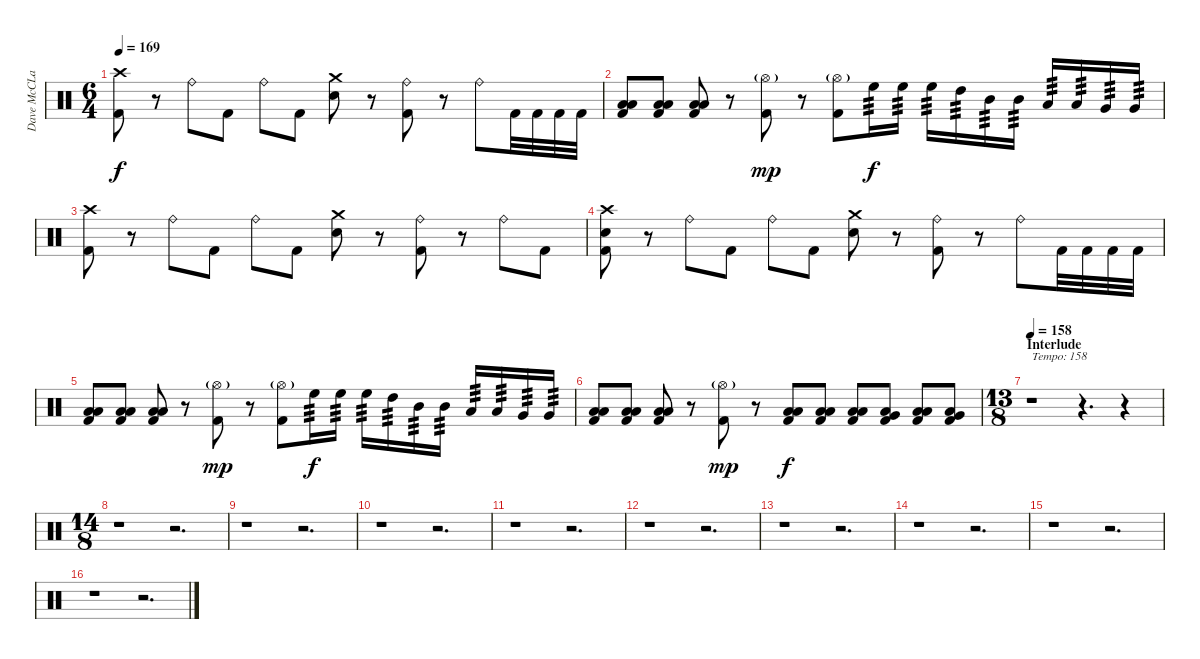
\track ("Dave McCLain" "Dave McCLa") {instrument percussion}
\staff {score}
\articulation defaults
\ts (6 4)
\tempo 169
\clef neutral
\ks c
("Crash high (hit)" "Kick (hit) 2").8{dy f} r.8 "Ride (bell)".8 "Kick (hit) 2".8 "Ride (bell)".8 "Kick (hit) 2".8 ("Crash medium (hit)" "Electric Snare (hit)").8 r.8 ("Ride (bell)" "Kick (hit) 2").8 r.8 "Ride (bell)".8 "Kick (hit) 2".32 "Kick (hit) 2".32 "Kick (hit) 2".32 "Kick (hit) 2".32 |
("Low Floor Tom (hit)" "Low Floor Tom (hit)" "Kick (hit) 2").8 ("Low Floor Tom (hit)" "Low Floor Tom (hit)" "Kick (hit) 2").8 ("Low Floor Tom (hit)" "Low Floor Tom (hit)" "Kick (hit) 2").8 r.8 ("Hi-Hat (open)"{g} "Kick (hit) 2").8{dy mp} r.8 ("Hi-Hat (open)"{g} "Kick (hit) 2").8 "High Floor Tom (hit)".16{tp 3 dy f} "High Floor Tom (hit)".16{tp 3} "High Floor Tom (hit)".16{tp 3} "High Tom (hit)".16{tp 3} "Mid Tom (hit)".16{tp 3} "Mid Tom (hit)".16{tp 3} "Low Tom (hit)".16{tp 3} "Low Tom (hit)".16{tp 3} "Very Low Tom (hit)".16{tp 3} "Very Low Tom (hit)".16{tp 3} |
("Crash high (hit)" "Kick (hit) 2").8 r.8 "Ride (bell)".8 "Kick (hit) 2".8 "Ride (bell)".8 "Kick (hit) 2".8 ("Crash medium (hit)" "Electric Snare (hit)").8 r.8 ("Ride (bell)" "Kick (hit) 2").8 r.8 "Ride (bell)".8 "Kick (hit) 2".8 |
("Crash high (hit)" "Electric Snare (hit)" "Kick (hit) 2").8 r.8 "Ride (bell)".8 "Kick (hit) 2".8 "Ride (bell)".8 "Kick (hit) 2".8 ("Crash medium (hit)" "Electric Snare (hit)").8 r.8 ("Ride (bell)" "Kick (hit) 2").8 r.8 "Ride (bell)".8 "Kick (hit) 2".32 "Kick (hit) 2".32 "Kick (hit) 2".32 "Kick (hit) 2".32 |
("Low Floor Tom (hit)" "Low Floor Tom (hit)" "Kick (hit) 2").8 ("Low Floor Tom (hit)" "Low Floor Tom (hit)" "Kick (hit) 2").8 ("Low Floor Tom (hit)" "Low Floor Tom (hit)" "Kick (hit) 2").8 r.8 ("Hi-Hat (open)"{g} "Kick (hit) 2").8{dy mp} r.8 ("Hi-Hat (open)"{g} "Kick (hit) 2").8 "High Floor Tom (hit)".16{tp 3 dy f} "High Floor Tom (hit)".16{tp 3} "High Floor Tom (hit)".16{tp 3} "High Tom (hit)".16{tp 3} "Mid Tom (hit)".16{tp 3} "Mid Tom (hit)".16{tp 3} "Low Tom (hit)".16{tp 3} "Low Tom (hit)".16{tp 3} "Very Low Tom (hit)".16{tp 3} "Very Low Tom (hit)".16{tp 3} |
("Low Floor Tom (hit)" "Low Floor Tom (hit)" "Kick (hit) 2").8 ("Low Floor Tom (hit)" "Low Floor Tom (hit)" "Kick (hit) 2").8 ("Low Floor Tom (hit)" "Low Floor Tom (hit)" "Kick (hit) 2").8 r.8 ("Hi-Hat (open)"{g} "Kick (hit) 2").8{dy mp} r.8 ("Low Floor Tom (hit)" "Low Floor Tom (hit)" "Kick (hit) 2").8{dy f} ("Low Floor Tom (hit)" "Low Floor Tom (hit)" "Kick (hit) 2").8 ("Low Floor Tom (hit)" "Low Floor Tom (hit)" "Kick (hit) 2").8 ("Very Low Tom (hit)" "Low Floor Tom (hit)" "Kick (hit) 2").8 ("Low Floor Tom (hit)" "Low Floor Tom (hit)" "Kick (hit) 2").8 ("Very Low Tom (hit)" "Low Floor Tom (hit)" "Kick (hit) 2").8 |
\ts (13 8)
\section ("" "Interlude")
\tempo 158
r.1{txt "Tempo: 158"} r.4{d} r.4 |
\ts (14 8)
r.1 r.2{d} |
r.1 r.2{d} |
r.1 r.2{d} |
r.1 r.2{d} |
r.1 r.2{d} |
r.1 r.2{d} |
r.1 r.2{d} |
r.1 r.2{d} |
r.1 r.2{d}
